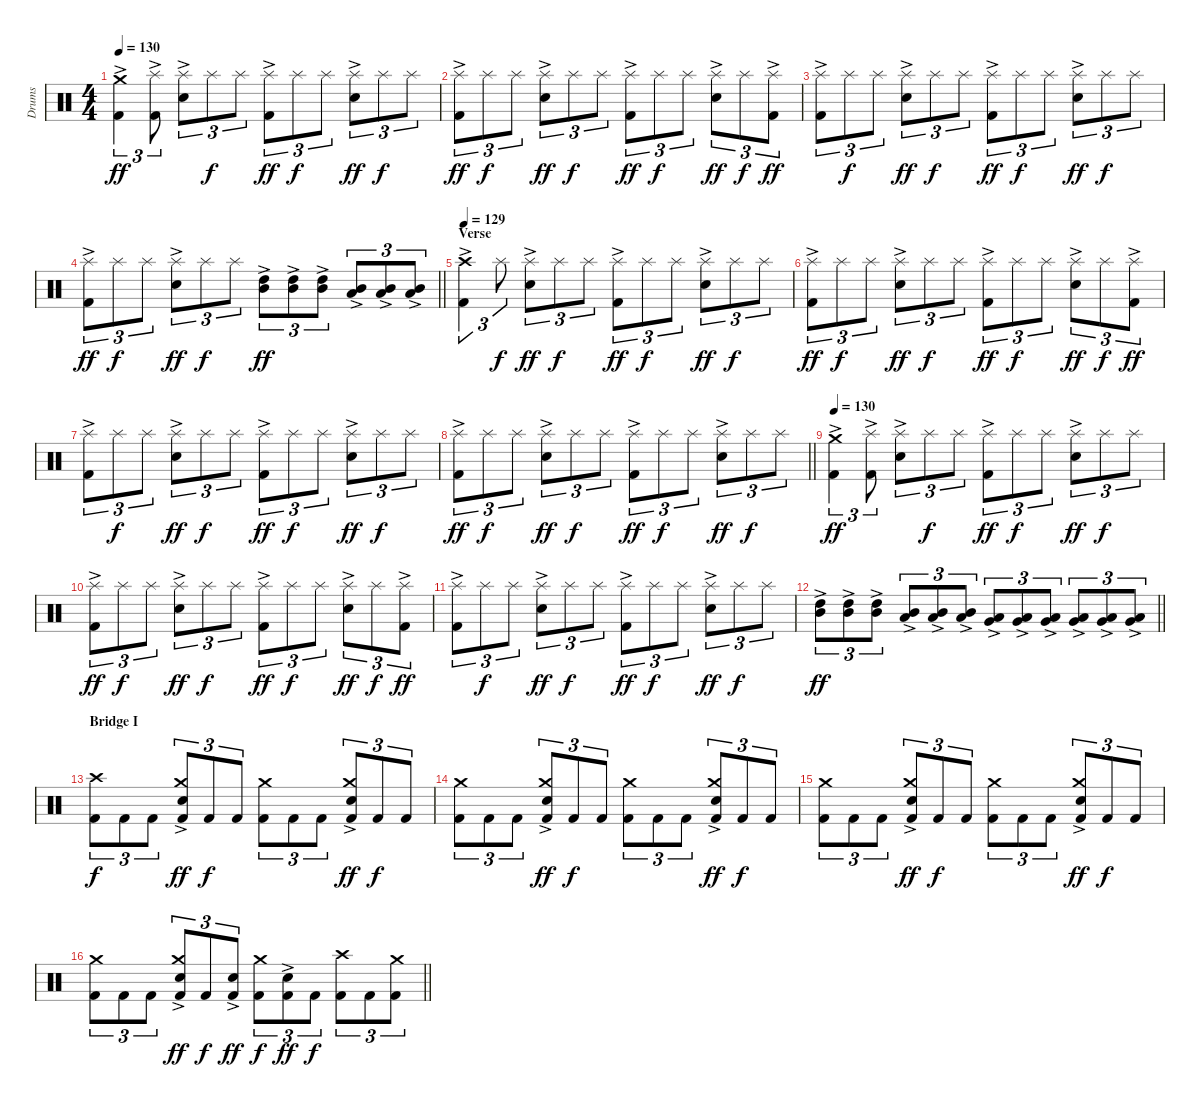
\track ("Drums" "Drums") {instrument percussion}
\staff {score}
\articulation defaults
\ts (4 4)
\section ("" "")
\tempo 130
\clef neutral
\ks c
("Kick (hit) 2"{ac} "Crash medium (hit)").4{tu (3 2) dy ff} ("Kick (hit) 2"{ac} "Splash (hit)").8{tu (3 2)} ("Snare (hit) 2"{ac} "Splash (hit)").8{tu (3 2)} "Splash (hit)".8{tu (3 2) dy f} "Splash (hit)".8{tu (3 2)} ("Kick (hit) 2"{ac} "Splash (hit)").8{tu (3 2) dy ff} "Splash (hit)".8{tu (3 2) dy f} "Splash (hit)".8{tu (3 2)} ("Snare (hit) 2"{ac} "Splash (hit)").8{tu (3 2) dy ff} "Splash (hit)".8{tu (3 2) dy f} "Splash (hit)".8{tu (3 2)} |
("Kick (hit) 2"{ac} "Splash (hit)").8{tu (3 2) dy ff} "Splash (hit)".8{tu (3 2) dy f} "Splash (hit)".8{tu (3 2)} ("Snare (hit) 2"{ac} "Splash (hit)").8{tu (3 2) dy ff} "Splash (hit)".8{tu (3 2) dy f} "Splash (hit)".8{tu (3 2)} ("Kick (hit) 2"{ac} "Splash (hit)").8{tu (3 2) dy ff} "Splash (hit)".8{tu (3 2) dy f} "Splash (hit)".8{tu (3 2)} ("Snare (hit) 2"{ac} "Splash (hit)").8{tu (3 2) dy ff} "Splash (hit)".8{tu (3 2) dy f} ("Kick (hit) 2"{ac} "Splash (hit)").8{tu (3 2) dy ff} |
("Kick (hit) 2"{ac} "Splash (hit)").8{tu (3 2)} "Splash (hit)".8{tu (3 2) dy f} "Splash (hit)".8{tu (3 2)} ("Snare (hit) 2"{ac} "Splash (hit)").8{tu (3 2) dy ff} "Splash (hit)".8{tu (3 2) dy f} "Splash (hit)".8{tu (3 2)} ("Kick (hit) 2"{ac} "Splash (hit)").8{tu (3 2) dy ff} "Splash (hit)".8{tu (3 2) dy f} "Splash (hit)".8{tu (3 2)} ("Snare (hit) 2"{ac} "Splash (hit)").8{tu (3 2) dy ff} "Splash (hit)".8{tu (3 2) dy f} "Splash (hit)".8{tu (3 2)} |
\barLineRight lightlight
("Kick (hit) 2"{ac} "Splash (hit)").8{tu (3 2) dy ff} "Splash (hit)".8{tu (3 2) dy f} "Splash (hit)".8{tu (3 2)} ("Snare (hit) 2"{ac} "Splash (hit)").8{tu (3 2) dy ff} "Splash (hit)".8{tu (3 2) dy f} "Splash (hit)".8{tu (3 2)} ("High Tom (hit)" "Mid Tom (hit)"{ac}).8{tu (3 2) dy ff} ("High Tom (hit)" "Mid Tom (hit)"{ac}).8{tu (3 2)} ("High Tom (hit)" "Mid Tom (hit)"{ac}).8{tu (3 2)} ("Mid Tom (hit)" "Low Tom (hit)"{ac}).8{tu (3 2)} ("Mid Tom (hit)" "Low Tom (hit)"{ac}).8{tu (3 2)} ("Mid Tom (hit)" "Low Tom (hit)"{ac}).8{tu (3 2)} |
\section ("" "Verse")
\tempo 129
("Kick (hit) 2"{ac} "Crash high (hit)").4{tu (3 2)} "Splash (hit)".8{tu (3 2) dy f} ("Snare (hit) 2"{ac} "Splash (hit)").8{tu (3 2) dy ff} "Splash (hit)".8{tu (3 2) dy f} "Splash (hit)".8{tu (3 2)} ("Kick (hit) 2"{ac} "Splash (hit)").8{tu (3 2) dy ff} "Splash (hit)".8{tu (3 2) dy f} "Splash (hit)".8{tu (3 2)} ("Snare (hit) 2"{ac} "Splash (hit)").8{tu (3 2) dy ff} "Splash (hit)".8{tu (3 2) dy f} "Splash (hit)".8{tu (3 2)} |
("Kick (hit) 2"{ac} "Splash (hit)").8{tu (3 2) dy ff} "Splash (hit)".8{tu (3 2) dy f} "Splash (hit)".8{tu (3 2)} ("Snare (hit) 2"{ac} "Splash (hit)").8{tu (3 2) dy ff} "Splash (hit)".8{tu (3 2) dy f} "Splash (hit)".8{tu (3 2)} ("Kick (hit) 2"{ac} "Splash (hit)").8{tu (3 2) dy ff} "Splash (hit)".8{tu (3 2) dy f} "Splash (hit)".8{tu (3 2)} ("Snare (hit) 2"{ac} "Splash (hit)").8{tu (3 2) dy ff} "Splash (hit)".8{tu (3 2) dy f} ("Kick (hit) 2"{ac} "Splash (hit)").8{tu (3 2) dy ff} |
("Kick (hit) 2"{ac} "Splash (hit)").8{tu (3 2)} "Splash (hit)".8{tu (3 2) dy f} "Splash (hit)".8{tu (3 2)} ("Snare (hit) 2"{ac} "Splash (hit)").8{tu (3 2) dy ff} "Splash (hit)".8{tu (3 2) dy f} "Splash (hit)".8{tu (3 2)} ("Kick (hit) 2"{ac} "Splash (hit)").8{tu (3 2) dy ff} "Splash (hit)".8{tu (3 2) dy f} "Splash (hit)".8{tu (3 2)} ("Snare (hit) 2"{ac} "Splash (hit)").8{tu (3 2) dy ff} "Splash (hit)".8{tu (3 2) dy f} "Splash (hit)".8{tu (3 2)} |
\barLineRight lightlight
("Kick (hit) 2"{ac} "Splash (hit)").8{tu (3 2) dy ff} "Splash (hit)".8{tu (3 2) dy f} "Splash (hit)".8{tu (3 2)} ("Snare (hit) 2"{ac} "Splash (hit)").8{tu (3 2) dy ff} "Splash (hit)".8{tu (3 2) dy f} "Splash (hit)".8{tu (3 2)} ("Kick (hit) 2"{ac} "Splash (hit)").8{tu (3 2) dy ff} "Splash (hit)".8{tu (3 2) dy f} "Splash (hit)".8{tu (3 2)} ("Snare (hit) 2"{ac} "Splash (hit)").8{tu (3 2) dy ff} "Splash (hit)".8{tu (3 2) dy f} "Splash (hit)".8{tu (3 2)} |
\section ("" "")
\tempo 130
("Kick (hit) 2"{ac} "Crash medium (hit)").4{tu (3 2) dy ff} ("Kick (hit) 2"{ac} "Splash (hit)").8{tu (3 2)} ("Snare (hit) 2"{ac} "Splash (hit)").8{tu (3 2)} "Splash (hit)".8{tu (3 2) dy f} "Splash (hit)".8{tu (3 2)} ("Kick (hit) 2"{ac} "Splash (hit)").8{tu (3 2) dy ff} "Splash (hit)".8{tu (3 2) dy f} "Splash (hit)".8{tu (3 2)} ("Snare (hit) 2"{ac} "Splash (hit)").8{tu (3 2) dy ff} "Splash (hit)".8{tu (3 2) dy f} "Splash (hit)".8{tu (3 2)} |
("Kick (hit) 2"{ac} "Splash (hit)").8{tu (3 2) dy ff} "Splash (hit)".8{tu (3 2) dy f} "Splash (hit)".8{tu (3 2)} ("Snare (hit) 2"{ac} "Splash (hit)").8{tu (3 2) dy ff} "Splash (hit)".8{tu (3 2) dy f} "Splash (hit)".8{tu (3 2)} ("Kick (hit) 2"{ac} "Splash (hit)").8{tu (3 2) dy ff} "Splash (hit)".8{tu (3 2) dy f} "Splash (hit)".8{tu (3 2)} ("Snare (hit) 2"{ac} "Splash (hit)").8{tu (3 2) dy ff} "Splash (hit)".8{tu (3 2) dy f} ("Kick (hit) 2"{ac} "Splash (hit)").8{tu (3 2) dy ff} |
("Kick (hit) 2"{ac} "Splash (hit)").8{tu (3 2)} "Splash (hit)".8{tu (3 2) dy f} "Splash (hit)".8{tu (3 2)} ("Snare (hit) 2"{ac} "Splash (hit)").8{tu (3 2) dy ff} "Splash (hit)".8{tu (3 2) dy f} "Splash (hit)".8{tu (3 2)} ("Kick (hit) 2"{ac} "Splash (hit)").8{tu (3 2) dy ff} "Splash (hit)".8{tu (3 2) dy f} "Splash (hit)".8{tu (3 2)} ("Snare (hit) 2"{ac} "Splash (hit)").8{tu (3 2) dy ff} "Splash (hit)".8{tu (3 2) dy f} "Splash (hit)".8{tu (3 2)} |
\barLineRight lightlight
("Mid Tom (hit)"{ac} "High Tom (hit)").8{tu (3 2) dy ff} ("Mid Tom (hit)"{ac} "High Tom (hit)").8{tu (3 2)} ("Mid Tom (hit)"{ac} "High Tom (hit)").8{tu (3 2)} ("Low Tom (hit)"{ac} "Mid Tom (hit)").8{tu (3 2)} ("Low Tom (hit)"{ac} "Mid Tom (hit)").8{tu (3 2)} ("Low Tom (hit)"{ac} "Mid Tom (hit)").8{tu (3 2)} ("Very Low Tom (hit)"{ac} "Low Tom (hit)").8{tu (3 2)} ("Very Low Tom (hit)"{ac} "Low Tom (hit)").8{tu (3 2)} ("Very Low Tom (hit)"{ac} "Low Tom (hit)").8{tu (3 2)} ("Low Floor Tom (hit)"{ac} "Very Low Tom (hit)").8{tu (3 2)} ("Low Floor Tom (hit)"{ac} "Very Low Tom (hit)").8{tu (3 2)} ("Low Floor Tom (hit)"{ac} "Very Low Tom (hit)").8{tu (3 2)} |
\section ("" "Bridge I")
("Kick (hit) 2" "Crash high (hit)").8{tu (3 2) dy f} "Kick (hit) 2".8{tu (3 2)} "Kick (hit) 2".8{tu (3 2)} ("Kick (hit) 2" "Snare (hit) 2"{ac} "Crash medium (hit)").8{tu (3 2) dy ff} "Kick (hit) 2".8{tu (3 2) dy f} "Kick (hit) 2".8{tu (3 2)} ("Kick (hit) 2" "Crash medium (hit)").8{tu (3 2)} "Kick (hit) 2".8{tu (3 2)} "Kick (hit) 2".8{tu (3 2)} ("Kick (hit) 2" "Snare (hit) 2"{ac} "Crash medium (hit)").8{tu (3 2) dy ff} "Kick (hit) 2".8{tu (3 2) dy f} "Kick (hit) 2".8{tu (3 2)} |
("Kick (hit) 2" "Crash medium (hit)").8{tu (3 2)} "Kick (hit) 2".8{tu (3 2)} "Kick (hit) 2".8{tu (3 2)} ("Kick (hit) 2" "Snare (hit) 2"{ac} "Crash medium (hit)").8{tu (3 2) dy ff} "Kick (hit) 2".8{tu (3 2) dy f} "Kick (hit) 2".8{tu (3 2)} ("Kick (hit) 2" "Crash medium (hit)").8{tu (3 2)} "Kick (hit) 2".8{tu (3 2)} "Kick (hit) 2".8{tu (3 2)} ("Kick (hit) 2" "Snare (hit) 2"{ac} "Crash medium (hit)").8{tu (3 2) dy ff} "Kick (hit) 2".8{tu (3 2) dy f} "Kick (hit) 2".8{tu (3 2)} |
("Kick (hit) 2" "Crash medium (hit)").8{tu (3 2)} "Kick (hit) 2".8{tu (3 2)} "Kick (hit) 2".8{tu (3 2)} ("Kick (hit) 2" "Snare (hit) 2"{ac} "Crash medium (hit)").8{tu (3 2) dy ff} "Kick (hit) 2".8{tu (3 2) dy f} "Kick (hit) 2".8{tu (3 2)} ("Kick (hit) 2" "Crash medium (hit)").8{tu (3 2)} "Kick (hit) 2".8{tu (3 2)} "Kick (hit) 2".8{tu (3 2)} ("Kick (hit) 2" "Snare (hit) 2"{ac} "Crash medium (hit)").8{tu (3 2) dy ff} "Kick (hit) 2".8{tu (3 2) dy f} "Kick (hit) 2".8{tu (3 2)} |
\barLineRight lightlight
("Kick (hit) 2" "Crash medium (hit)").8{tu (3 2)} "Kick (hit) 2".8{tu (3 2)} "Kick (hit) 2".8{tu (3 2)} ("Kick (hit) 2" "Snare (hit) 2"{ac} "Crash medium (hit)").8{tu (3 2) dy ff} "Kick (hit) 2".8{tu (3 2) dy f} ("Kick (hit) 2" "Snare (hit) 2"{ac}).8{tu (3 2) dy ff} ("Kick (hit) 2" "Crash medium (hit)").8{tu (3 2) dy f} ("Kick (hit) 2" "Snare (hit) 2"{ac}).8{tu (3 2) dy ff} "Kick (hit) 2".8{tu (3 2) dy f} ("Kick (hit) 2" "Crash high (hit)").8{tu (3 2)} "Kick (hit) 2".8{tu (3 2)} ("Kick (hit) 2" "Crash medium (hit)").8{tu (3 2)}
